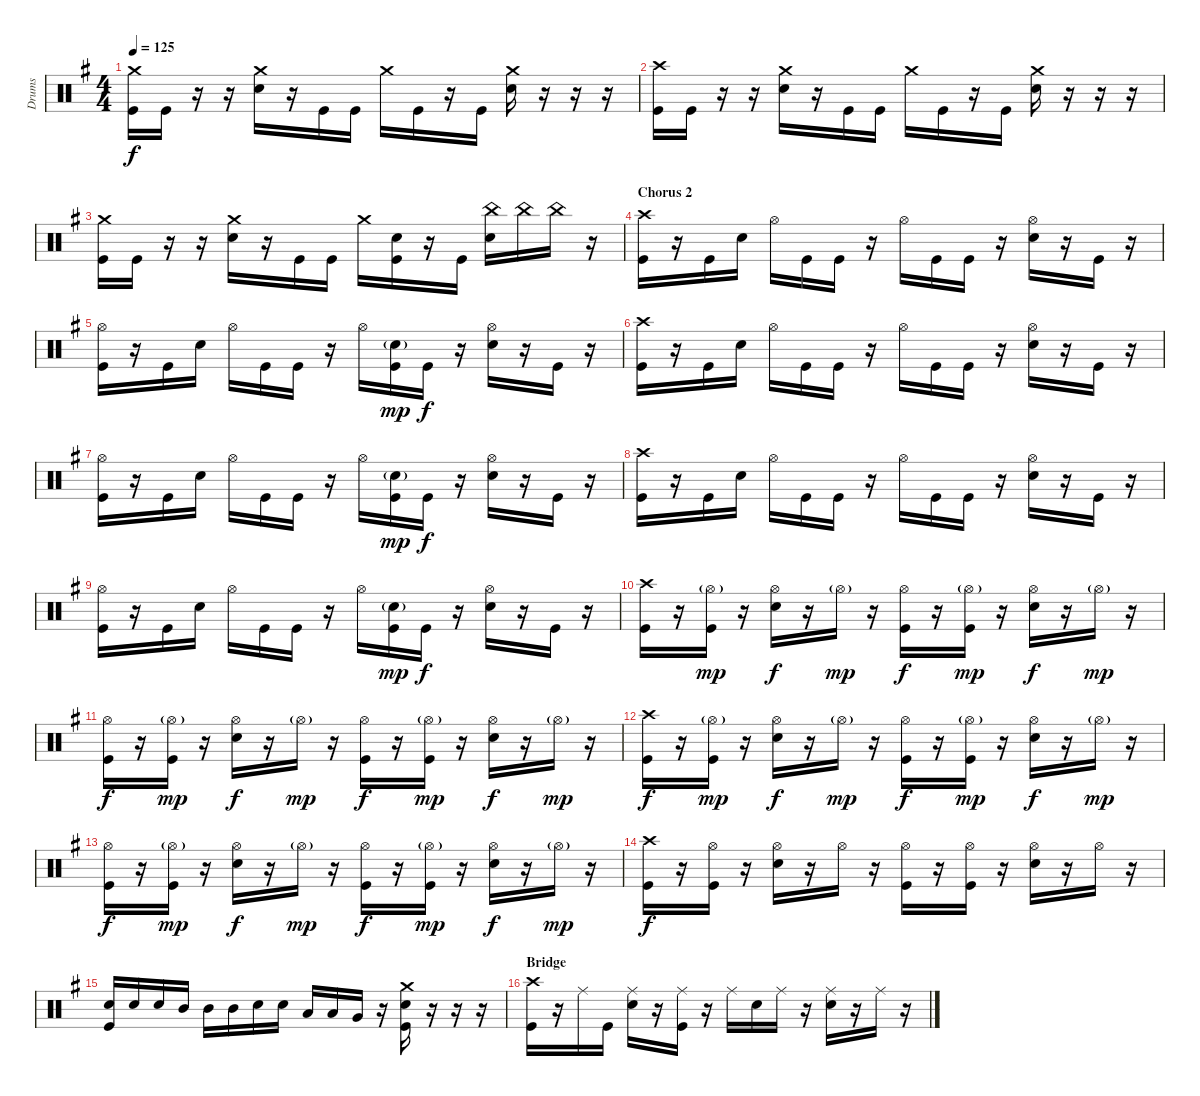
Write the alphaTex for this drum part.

\track ("Drums" "Drums") {instrument percussion}
\staff {score}
\articulation defaults
\ts (4 4)
\tempo 125
\clef neutral
\ks eminor
("Crash medium (hit)" "Kick (hit)").16{dy f} "Kick (hit)".16 r.16 r.16 ("Crash medium (hit)" "Electric Snare (hit)").16 r.16 "Kick (hit)".16 "Kick (hit)".16 "Crash medium (hit)".16 "Kick (hit)".16 r.16 "Kick (hit)".16 ("Crash medium (hit)" "Electric Snare (hit)").16 r.16 r.16 r.16 |
("Crash high (hit)" "Kick (hit)").16 "Kick (hit)".16 r.16 r.16 ("Crash medium (hit)" "Electric Snare (hit)").16 r.16 "Kick (hit)".16 "Kick (hit)".16 "Crash medium (hit)".16 "Kick (hit)".16 r.16 "Kick (hit)".16 ("Crash medium (hit)" "Electric Snare (hit)").16 r.16 r.16 r.16 |
("Crash medium (hit)" "Kick (hit)").16 "Kick (hit)".16 r.16 r.16 ("Crash medium (hit)" "Electric Snare (hit)").16 r.16 "Kick (hit)".16 "Kick (hit)".16 "Crash medium (hit)".16 ("Electric Snare (hit)" "Kick (hit)").16 r.16 "Kick (hit)".16 ("China (hit)" "Electric Snare (hit)").16 "China (hit)".16 "China (hit)".16 r.16 |
\section ("" "Chorus 2")
("Crash high (hit)" "Kick (hit)").16 r.16 "Kick (hit)".16 "Electric Snare (hit)".16 "Hi-Hat (open)".16 "Kick (hit)".16 "Kick (hit)".16 r.16 "Hi-Hat (open)".16 "Kick (hit)".16 "Kick (hit)".16 r.16 ("Hi-Hat (open)" "Electric Snare (hit)").16 r.16 "Kick (hit)".16 r.16 |
("Hi-Hat (open)" "Kick (hit)").16 r.16 "Kick (hit)".16 "Electric Snare (hit)".16 "Hi-Hat (open)".16 "Kick (hit)".16 "Kick (hit)".16 r.16 "Hi-Hat (open)".16 ("Electric Snare (hit)"{g} "Kick (hit)").16{dy mp} "Kick (hit)".16{dy f} r.16 ("Hi-Hat (open)" "Electric Snare (hit)").16 r.16 "Kick (hit)".16 r.16 |
("Crash high (hit)" "Kick (hit)").16 r.16 "Kick (hit)".16 "Electric Snare (hit)".16 "Hi-Hat (open)".16 "Kick (hit)".16 "Kick (hit)".16 r.16 "Hi-Hat (open)".16 "Kick (hit)".16 "Kick (hit)".16 r.16 ("Hi-Hat (open)" "Electric Snare (hit)").16 r.16 "Kick (hit)".16 r.16 |
("Hi-Hat (open)" "Kick (hit)").16 r.16 "Kick (hit)".16 "Electric Snare (hit)".16 "Hi-Hat (open)".16 "Kick (hit)".16 "Kick (hit)".16 r.16 "Hi-Hat (open)".16 ("Electric Snare (hit)"{g} "Kick (hit)").16{dy mp} "Kick (hit)".16{dy f} r.16 ("Hi-Hat (open)" "Electric Snare (hit)").16 r.16 "Kick (hit)".16 r.16 |
("Crash high (hit)" "Kick (hit)").16 r.16 "Kick (hit)".16 "Electric Snare (hit)".16 "Hi-Hat (open)".16 "Kick (hit)".16 "Kick (hit)".16 r.16 "Hi-Hat (open)".16 "Kick (hit)".16 "Kick (hit)".16 r.16 ("Hi-Hat (open)" "Electric Snare (hit)").16 r.16 "Kick (hit)".16 r.16 |
("Hi-Hat (open)" "Kick (hit)").16 r.16 "Kick (hit)".16 "Electric Snare (hit)".16 "Hi-Hat (open)".16 "Kick (hit)".16 "Kick (hit)".16 r.16 "Hi-Hat (open)".16 ("Electric Snare (hit)"{g} "Kick (hit)").16{dy mp} "Kick (hit)".16{dy f} r.16 ("Hi-Hat (open)" "Electric Snare (hit)").16 r.16 "Kick (hit)".16 r.16 |
("Crash high (hit)" "Kick (hit)").16 r.16 ("Hi-Hat (open)"{g} "Kick (hit)").16{dy mp} r.16 ("Hi-Hat (open)" "Electric Snare (hit)").16{dy f} r.16 "Hi-Hat (open)"{g}.16{dy mp} r.16 ("Hi-Hat (open)" "Kick (hit)").16{dy f} r.16 ("Hi-Hat (open)"{g} "Kick (hit)").16{dy mp} r.16 ("Hi-Hat (open)" "Electric Snare (hit)").16{dy f} r.16 "Hi-Hat (open)"{g}.16{dy mp} r.16 |
("Hi-Hat (open)" "Kick (hit)").16{dy f} r.16 ("Hi-Hat (open)"{g} "Kick (hit)").16{dy mp} r.16 ("Hi-Hat (open)" "Electric Snare (hit)").16{dy f} r.16 "Hi-Hat (open)"{g}.16{dy mp} r.16 ("Hi-Hat (open)" "Kick (hit)").16{dy f} r.16 ("Hi-Hat (open)"{g} "Kick (hit)").16{dy mp} r.16 ("Hi-Hat (open)" "Electric Snare (hit)").16{dy f} r.16 "Hi-Hat (open)"{g}.16{dy mp} r.16 |
("Crash high (hit)" "Kick (hit)").16{dy f} r.16 ("Hi-Hat (open)"{g} "Kick (hit)").16{dy mp} r.16 ("Hi-Hat (open)" "Electric Snare (hit)").16{dy f} r.16 "Hi-Hat (open)"{g}.16{dy mp} r.16 ("Hi-Hat (open)" "Kick (hit)").16{dy f} r.16 ("Hi-Hat (open)"{g} "Kick (hit)").16{dy mp} r.16 ("Hi-Hat (open)" "Electric Snare (hit)").16{dy f} r.16 "Hi-Hat (open)"{g}.16{dy mp} r.16 |
("Hi-Hat (open)" "Kick (hit)").16{dy f} r.16 ("Hi-Hat (open)"{g} "Kick (hit)").16{dy mp} r.16 ("Hi-Hat (open)" "Electric Snare (hit)").16{dy f} r.16 "Hi-Hat (open)"{g}.16{dy mp} r.16 ("Hi-Hat (open)" "Kick (hit)").16{dy f} r.16 ("Hi-Hat (open)"{g} "Kick (hit)").16{dy mp} r.16 ("Hi-Hat (open)" "Electric Snare (hit)").16{dy f} r.16 "Hi-Hat (open)"{g}.16{dy mp} r.16 |
("Crash high (hit)" "Kick (hit)").16{dy f} r.16 ("Hi-Hat (open)" "Kick (hit)").16 r.16 ("Hi-Hat (open)" "Electric Snare (hit)").16 r.16 "Hi-Hat (open)".16 r.16 ("Hi-Hat (open)" "Kick (hit)").16 r.16 ("Hi-Hat (open)" "Kick (hit)").16 r.16 ("Hi-Hat (open)" "Electric Snare (hit)").16 r.16 "Hi-Hat (open)".16 r.16 |
("Electric Snare (hit)" "Kick (hit)").16 "Electric Snare (hit)".16 "Electric Snare (hit)".16 "Mid Tom (hit)".16 "Mid Tom (hit)".16 "Mid Tom (hit)".16 "Electric Snare (hit)".16 "Electric Snare (hit)".16 "Low Tom (hit)".16 "Low Tom (hit)".16 "Very Low Tom (hit)".16 r.16 ("Crash medium (hit)" "Electric Snare (hit)" "Kick (hit)").16 r.16 r.16 r.16 |
\section ("" "Bridge")
("Crash high (hit)" "Kick (hit)").16 r.16 "Ride (middle)".16 "Kick (hit)".16 ("Ride (middle)" "Electric Snare (hit)").16 r.16 ("Ride (middle)" "Kick (hit)").16 r.16 "Ride (middle)".16 "Electric Snare (hit)".16 "Ride (middle)".16 r.16 ("Ride (middle)" "Electric Snare (hit)").16 r.16 "Ride (middle)".16 r.16
